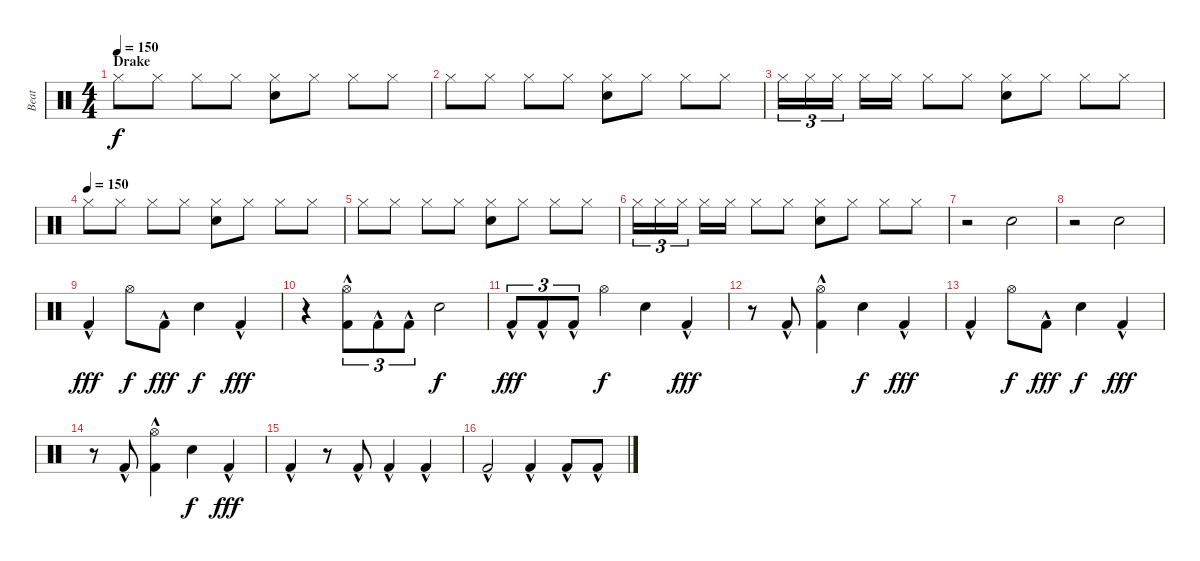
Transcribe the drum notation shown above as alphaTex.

\track ("Beat" "Beat") {instrument percussion}
\staff {score}
\articulation defaults
\ts (4 4)
\section ("" "Drake")
\tempo 150
\clef neutral
\ks c "Hi-Hat (closed)".8{dy f volume 16} "Hi-Hat (closed)".8 "Hi-Hat (closed)".8 "Hi-Hat (closed)".8
("Hi-Hat (closed)" "Hand Clap (hit)").8 "Hi-Hat (closed)".8 "Hi-Hat (closed)".8 "Hi-Hat (closed)".8 |
"Hi-Hat (closed)".8 "Hi-Hat (closed)".8 "Hi-Hat (closed)".8 "Hi-Hat (closed)".8 ("Hi-Hat (closed)" "Hand Clap (hit)").8 "Hi-Hat (closed)".8 "Hi-Hat (closed)".8 "Hi-Hat (closed)".8 |
"Hi-Hat (closed)".16{tu (3 2)} "Hi-Hat (closed)".16{tu (3 2)} "Hi-Hat (closed)".16{tu (3 2) beam splitsecondary} "Hi-Hat (closed)".16 "Hi-Hat (closed)".16 "Hi-Hat (closed)".8 "Hi-Hat (closed)".8 ("Hi-Hat (closed)" "Hand Clap (hit)").8 "Hi-Hat (closed)".8 "Hi-Hat (closed)".8 "Hi-Hat (closed)".8 |
\tempo (150)
"Hi-Hat (closed)".8 "Hi-Hat (closed)".8 "Hi-Hat (closed)".8 "Hi-Hat (closed)".8 ("Hi-Hat (closed)" "Hand Clap (hit)").8 "Hi-Hat (closed)".8 "Hi-Hat (closed)".8 "Hi-Hat (closed)".8 |
"Hi-Hat (closed)".8 "Hi-Hat (closed)".8 "Hi-Hat (closed)".8 "Hi-Hat (closed)".8 ("Hi-Hat (closed)" "Hand Clap (hit)").8 "Hi-Hat (closed)".8 "Hi-Hat (closed)".8 "Hi-Hat (closed)".8 |
"Hi-Hat (closed)".16{tu (3 2)} "Hi-Hat (closed)".16{tu (3 2)} "Hi-Hat (closed)".16{tu (3 2) beam splitsecondary} "Hi-Hat (closed)".16 "Hi-Hat (closed)".16 "Hi-Hat (closed)".8 "Hi-Hat (closed)".8 ("Hi-Hat (closed)" "Hand Clap (hit)").8 "Hi-Hat (closed)".8 "Hi-Hat (closed)".8 "Hi-Hat (closed)".8 |
r.2 "Hand Clap (hit)".2 |
r.2 "Hand Clap (hit)".2 |
"Kick (hit) 2"{hac}.4{dy fff} "Hi-Hat (open)".8{dy f} "Kick (hit) 2"{hac}.8{dy fff} "Hand Clap (hit)".4{dy f} "Kick (hit) 2"{hac}.4{dy fff} |
r.4 ("Hi-Hat (open)" "Kick (hit) 2"{hac}).8{tu (3 2)} "Kick (hit) 2"{hac}.8{tu (3 2)} "Kick (hit) 2"{hac}.8{tu (3 2)} "Hand Clap (hit)".2{dy f} |
"Kick (hit) 2"{hac}.8{tu (3 2) dy fff} "Kick (hit) 2"{hac}.8{tu (3 2)} "Kick (hit) 2"{hac}.8{tu (3 2)} "Hi-Hat (open)".4{dy f} "Hand Clap (hit)".4 "Kick (hit) 2"{hac}.4{dy fff} |
r.8 "Kick (hit) 2"{hac}.8 ("Hi-Hat (open)" "Kick (hit) 2"{hac}).4 "Hand Clap (hit)".4{dy f} "Kick (hit) 2"{hac}.4{dy fff} |
"Kick (hit) 2"{hac}.4 "Hi-Hat (open)".8{dy f} "Kick (hit) 2"{hac}.8{dy fff} "Hand Clap (hit)".4{dy f} "Kick (hit) 2"{hac}.4{dy fff} |
r.8 "Kick (hit) 2"{hac}.8 ("Hi-Hat (open)" "Kick (hit) 2"{hac}).4 "Hand Clap (hit)".4{dy f} "Kick (hit) 2"{hac}.4{dy fff} |
"Kick (hit) 2"{hac}.4 r.8 "Kick (hit) 2"{hac}.8 "Kick (hit) 2"{hac}.4 "Kick (hit) 2"{hac}.4 |
"Kick (hit) 2"{hac}.2 "Kick (hit) 2"{hac}.4 "Kick (hit) 2"{hac}.8 "Kick (hit) 2"{hac}.8
